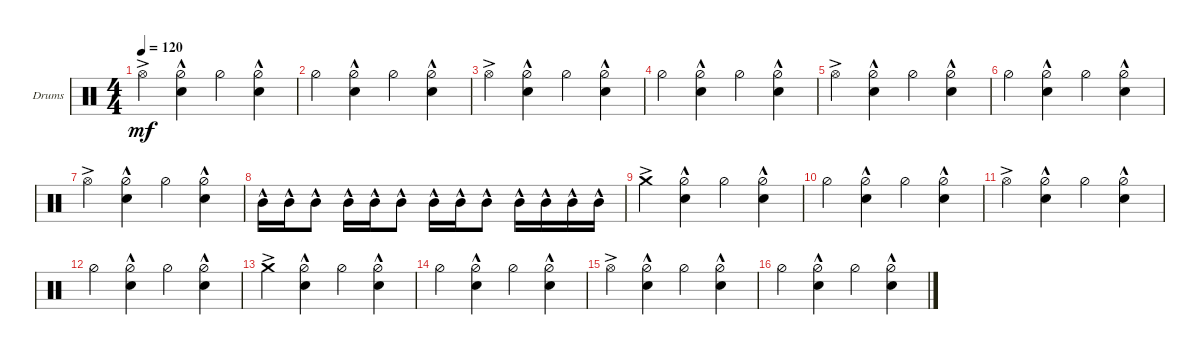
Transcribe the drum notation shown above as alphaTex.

\defaultSystemsLayout 4
\bracketExtendMode nobrackets
\firstSystemTrackNameOrientation horizontal
\otherSystemsTrackNameOrientation horizontal
\track ("Ударные" "Drums") {instrument percussion}
\staff {score}
\articulation defaults
\ts (4 4)
\tempo 120
\clef neutral
\ks c "Hi-Hat (open)"{ac}.4{dy mf}
("Hi-Hat (half)" "Snare (hit) 2"{hac}).4 "Hi-Hat (half)".4 ("Hi-Hat (half)" "Snare (hit) 2"{hac}).4 |
"Hi-Hat (half)".4 ("Hi-Hat (half)" "Snare (hit) 2"{hac}).4 "Hi-Hat (half)".4 ("Hi-Hat (half)" "Snare (hit) 2"{hac}).4 |
"Hi-Hat (open)"{ac}.4 ("Hi-Hat (half)" "Snare (hit) 2"{hac}).4 "Hi-Hat (half)".4 ("Hi-Hat (half)" "Snare (hit) 2"{hac}).4 |
"Hi-Hat (half)".4 ("Hi-Hat (half)" "Snare (hit) 2"{hac}).4 "Hi-Hat (half)".4 ("Hi-Hat (half)" "Snare (hit) 2"{hac}).4 |
"Hi-Hat (open)"{ac}.4 ("Hi-Hat (half)" "Snare (hit) 2"{hac}).4 "Hi-Hat (half)".4 ("Hi-Hat (half)" "Snare (hit) 2"{hac}).4 |
"Hi-Hat (half)".4 ("Hi-Hat (half)" "Snare (hit) 2"{hac}).4 "Hi-Hat (half)".4 ("Hi-Hat (half)" "Snare (hit) 2"{hac}).4 |
"Hi-Hat (open)"{ac}.4 ("Hi-Hat (half)" "Snare (hit) 2"{hac}).4 "Hi-Hat (half)".4 ("Hi-Hat (half)" "Snare (hit) 2"{hac}).4 |
"Mid Tom (hit)"{hac}.16 "Mid Tom (hit)"{hac}.16 "Mid Tom (hit)"{hac}.8 "Mid Tom (hit)"{hac}.16 "Mid Tom (hit)"{hac}.16 "Mid Tom (hit)"{hac}.8 "Mid Tom (hit)"{hac}.16 "Mid Tom (hit)"{hac}.16 "Mid Tom (hit)"{hac}.8 "Mid Tom (hit)"{hac}.16 "Mid Tom (hit)"{hac}.16 "Mid Tom (hit)"{hac}.16 "Mid Tom (hit)"{hac}.16 |
"Crash medium (hit)"{ac}.4 ("Hi-Hat (half)" "Snare (hit) 2"{hac}).4 "Hi-Hat (half)".4 ("Hi-Hat (half)" "Snare (hit) 2"{hac}).4 |
"Hi-Hat (half)".4 ("Hi-Hat (half)" "Snare (hit) 2"{hac}).4 "Hi-Hat (half)".4 ("Hi-Hat (half)" "Snare (hit) 2"{hac}).4 |
"Hi-Hat (open)"{ac}.4 ("Hi-Hat (half)" "Snare (hit) 2"{hac}).4 "Hi-Hat (half)".4 ("Hi-Hat (half)" "Snare (hit) 2"{hac}).4 |
"Hi-Hat (half)".4 ("Hi-Hat (half)" "Snare (hit) 2"{hac}).4 "Hi-Hat (half)".4 ("Hi-Hat (half)" "Snare (hit) 2"{hac}).4 |
"Crash medium (hit)"{ac}.4 ("Hi-Hat (half)" "Snare (hit) 2"{hac}).4 "Hi-Hat (half)".4 ("Hi-Hat (half)" "Snare (hit) 2"{hac}).4 |
"Hi-Hat (half)".4 ("Hi-Hat (half)" "Snare (hit) 2"{hac}).4 "Hi-Hat (half)".4 ("Hi-Hat (half)" "Snare (hit) 2"{hac}).4 |
"Hi-Hat (open)"{ac}.4 ("Hi-Hat (half)" "Snare (hit) 2"{hac}).4 "Hi-Hat (half)".4 ("Hi-Hat (half)" "Snare (hit) 2"{hac}).4 |
"Hi-Hat (half)".4 ("Hi-Hat (half)" "Snare (hit) 2"{hac}).4 "Hi-Hat (half)".4 ("Hi-Hat (half)" "Snare (hit) 2"{hac}).4
